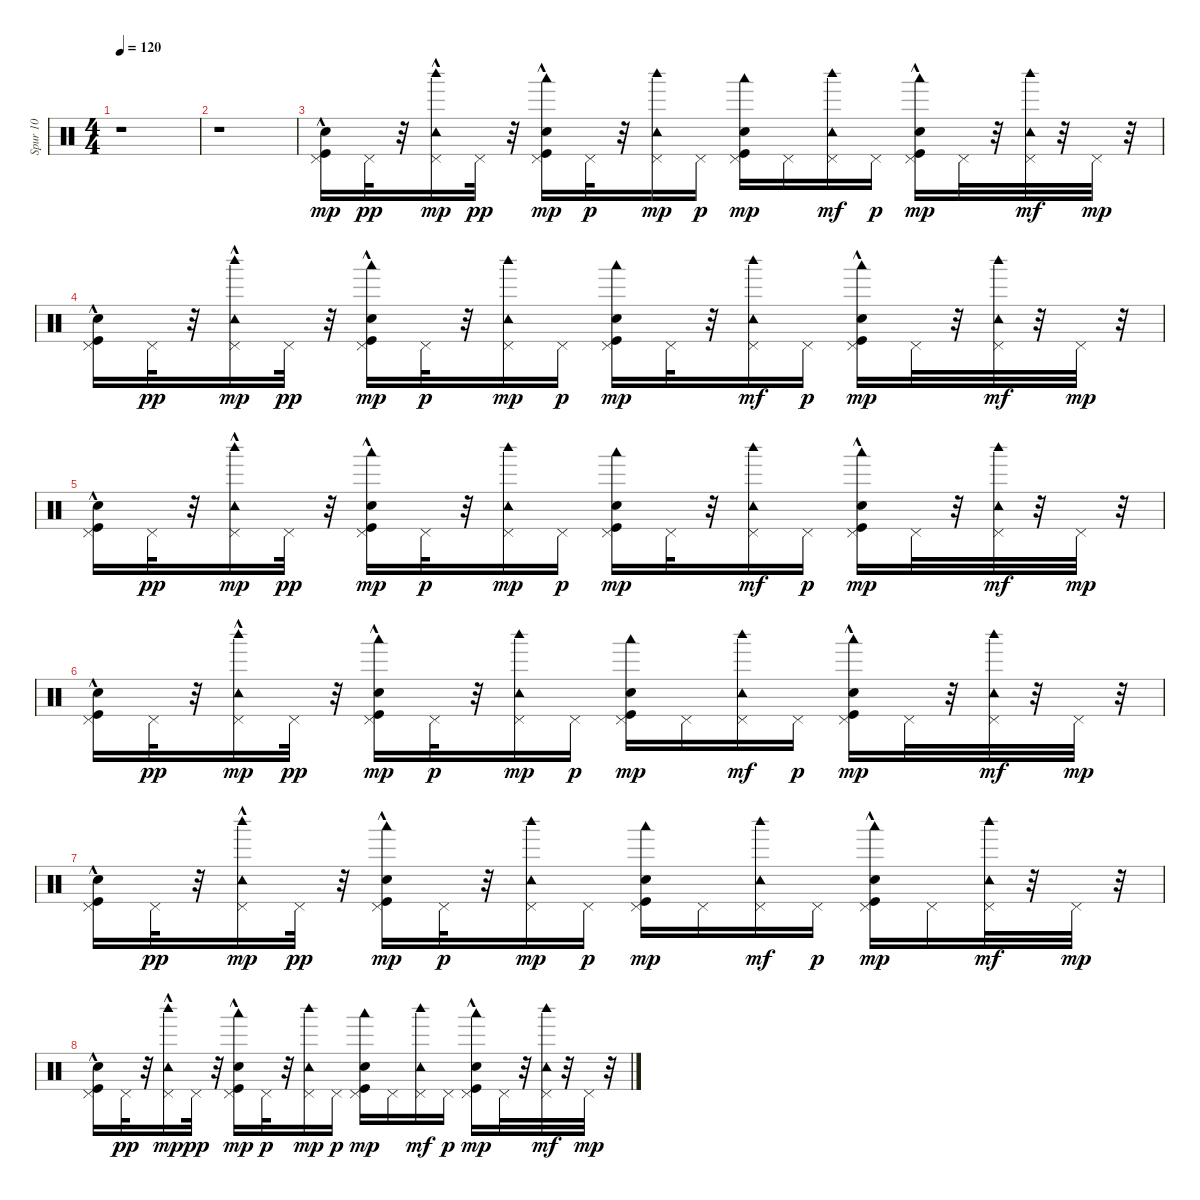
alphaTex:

\track ("Spur 10" "Spur 10") {instrument percussion}
\staff {score}
\articulation defaults
\ts (4 4)
\tempo 120
\clef neutral
\ks c
r.1{dy mp} |
r.1 |
("Pedal Hi-Hat (hit)" "Kick (hit)" "Hand Clap (hit)"{hac}).16 "Pedal Hi-Hat (hit)".32{dy pp} r.32 ("Pedal Hi-Hat (hit)" "Tambourine (hit)" "Woodblock high (hit)"{hac}).16{dy mp} "Pedal Hi-Hat (hit)".32{dy pp} r.32 ("Kick (hit)" "Pedal Hi-Hat (hit)" "Hand Clap (hit)" "Woodblock low (hit)"{hac}).16{dy mp} "Pedal Hi-Hat (hit)".32{dy p} r.32 ("Pedal Hi-Hat (hit)" "Tambourine (hit)" "Woodblock high (hit)").16{dy mp} "Pedal Hi-Hat (hit)".16{dy p} ("Kick (hit)" "Pedal Hi-Hat (hit)" "Hand Clap (hit)" "Woodblock low (hit)").16{dy mp} "Pedal Hi-Hat (hit)".16 ("Pedal Hi-Hat (hit)" "Tambourine (hit)" "Woodblock high (hit)").16{dy mf} "Pedal Hi-Hat (hit)".16{dy p} ("Kick (hit)"{hac} "Pedal Hi-Hat (hit)" "Hand Clap (hit)"{hac} "Woodblock low (hit)").16{dy mp} "Pedal Hi-Hat (hit)".32 r.32 ("Pedal Hi-Hat (hit)" "Tambourine (hit)" "Woodblock high (hit)").32{dy mf} r.32 "Pedal Hi-Hat (hit)".32{dy mp} r.32 |
("Pedal Hi-Hat (hit)" "Kick (hit)" "Hand Clap (hit)"{hac}).16 "Pedal Hi-Hat (hit)".32{dy pp} r.32 ("Pedal Hi-Hat (hit)" "Tambourine (hit)" "Woodblock high (hit)"{hac}).16{dy mp} "Pedal Hi-Hat (hit)".32{dy pp} r.32 ("Kick (hit)" "Pedal Hi-Hat (hit)" "Hand Clap (hit)" "Woodblock low (hit)"{hac}).16{dy mp} "Pedal Hi-Hat (hit)".32{dy p} r.32 ("Pedal Hi-Hat (hit)" "Tambourine (hit)" "Woodblock high (hit)").16{dy mp} "Pedal Hi-Hat (hit)".16{dy p} ("Kick (hit)" "Pedal Hi-Hat (hit)" "Hand Clap (hit)" "Woodblock low (hit)").16{dy mp} "Pedal Hi-Hat (hit)".32 r.32 ("Pedal Hi-Hat (hit)" "Tambourine (hit)" "Woodblock high (hit)").16{dy mf} "Pedal Hi-Hat (hit)".16{dy p} ("Kick (hit)"{hac} "Pedal Hi-Hat (hit)" "Hand Clap (hit)"{hac} "Woodblock low (hit)").16{dy mp} "Pedal Hi-Hat (hit)".32 r.32 ("Pedal Hi-Hat (hit)" "Tambourine (hit)" "Woodblock high (hit)").32{dy mf} r.32 "Pedal Hi-Hat (hit)".32{dy mp} r.32 |
("Pedal Hi-Hat (hit)" "Kick (hit)" "Hand Clap (hit)"{hac}).16 "Pedal Hi-Hat (hit)".32{dy pp} r.32 ("Pedal Hi-Hat (hit)" "Tambourine (hit)" "Woodblock high (hit)"{hac}).16{dy mp} "Pedal Hi-Hat (hit)".32{dy pp} r.32 ("Kick (hit)" "Pedal Hi-Hat (hit)" "Hand Clap (hit)"{hac} "Woodblock low (hit)"{hac}).16{dy mp} "Pedal Hi-Hat (hit)".32{dy p} r.32 ("Pedal Hi-Hat (hit)" "Tambourine (hit)" "Woodblock high (hit)").16{dy mp} "Pedal Hi-Hat (hit)".16{dy p} ("Kick (hit)" "Pedal Hi-Hat (hit)" "Hand Clap (hit)" "Woodblock low (hit)").16{dy mp} "Pedal Hi-Hat (hit)".32 r.32 ("Pedal Hi-Hat (hit)" "Tambourine (hit)" "Woodblock high (hit)").16{dy mf} "Pedal Hi-Hat (hit)".16{dy p} ("Kick (hit)"{hac} "Pedal Hi-Hat (hit)" "Hand Clap (hit)"{hac} "Woodblock low (hit)").16{dy mp} "Pedal Hi-Hat (hit)".32 r.32 ("Pedal Hi-Hat (hit)" "Tambourine (hit)" "Woodblock high (hit)").32{dy mf} r.32 "Pedal Hi-Hat (hit)".32{dy mp} r.32 |
("Pedal Hi-Hat (hit)" "Kick (hit)" "Hand Clap (hit)"{hac}).16 "Pedal Hi-Hat (hit)".32{dy pp} r.32 ("Pedal Hi-Hat (hit)" "Tambourine (hit)" "Woodblock high (hit)"{hac}).16{dy mp} "Pedal Hi-Hat (hit)".32{dy pp} r.32 ("Kick (hit)" "Pedal Hi-Hat (hit)" "Hand Clap (hit)" "Woodblock low (hit)"{hac}).16{dy mp} "Pedal Hi-Hat (hit)".32{dy p} r.32 ("Pedal Hi-Hat (hit)" "Tambourine (hit)" "Woodblock high (hit)").16{dy mp} "Pedal Hi-Hat (hit)".16{dy p} ("Kick (hit)" "Pedal Hi-Hat (hit)" "Hand Clap (hit)" "Woodblock low (hit)").16{dy mp} "Pedal Hi-Hat (hit)".16 ("Pedal Hi-Hat (hit)" "Tambourine (hit)" "Woodblock high (hit)").16{dy mf} "Pedal Hi-Hat (hit)".16{dy p} ("Kick (hit)"{hac} "Pedal Hi-Hat (hit)" "Hand Clap (hit)"{hac} "Woodblock low (hit)").16{dy mp} "Pedal Hi-Hat (hit)".32 r.32 ("Pedal Hi-Hat (hit)" "Tambourine (hit)" "Woodblock high (hit)").32{dy mf} r.32 "Pedal Hi-Hat (hit)".32{dy mp} r.32 |
("Pedal Hi-Hat (hit)" "Kick (hit)" "Hand Clap (hit)"{hac}).16 "Pedal Hi-Hat (hit)".32{dy pp} r.32 ("Pedal Hi-Hat (hit)" "Tambourine (hit)" "Woodblock high (hit)"{hac}).16{dy mp} "Pedal Hi-Hat (hit)".32{dy pp} r.32 ("Kick (hit)" "Pedal Hi-Hat (hit)" "Hand Clap (hit)" "Woodblock low (hit)"{hac}).16{dy mp} "Pedal Hi-Hat (hit)".32{dy p} r.32 ("Pedal Hi-Hat (hit)" "Tambourine (hit)" "Woodblock high (hit)").16{dy mp} "Pedal Hi-Hat (hit)".16{dy p} ("Kick (hit)" "Pedal Hi-Hat (hit)" "Hand Clap (hit)" "Woodblock low (hit)").16{dy mp} "Pedal Hi-Hat (hit)".16 ("Pedal Hi-Hat (hit)" "Tambourine (hit)" "Woodblock high (hit)").16{dy mf} "Pedal Hi-Hat (hit)".16{dy p} ("Kick (hit)"{hac} "Pedal Hi-Hat (hit)" "Hand Clap (hit)"{hac} "Woodblock low (hit)").16{dy mp} "Pedal Hi-Hat (hit)".16 ("Pedal Hi-Hat (hit)" "Tambourine (hit)" "Woodblock high (hit)").32{dy mf} r.32 "Pedal Hi-Hat (hit)".32{dy mp} r.32 |
("Pedal Hi-Hat (hit)" "Kick (hit)" "Hand Clap (hit)"{hac}).16 "Pedal Hi-Hat (hit)".32{dy pp} r.32 ("Pedal Hi-Hat (hit)" "Tambourine (hit)" "Woodblock high (hit)"{hac}).16{dy mp} "Pedal Hi-Hat (hit)".32{dy pp} r.32 ("Kick (hit)" "Pedal Hi-Hat (hit)" "Hand Clap (hit)" "Woodblock low (hit)"{hac}).16{dy mp} "Pedal Hi-Hat (hit)".32{dy p} r.32 ("Pedal Hi-Hat (hit)" "Tambourine (hit)" "Woodblock high (hit)").16{dy mp} "Pedal Hi-Hat (hit)".16{dy p} ("Kick (hit)" "Pedal Hi-Hat (hit)" "Hand Clap (hit)" "Woodblock low (hit)").16{dy mp} "Pedal Hi-Hat (hit)".16 ("Pedal Hi-Hat (hit)" "Tambourine (hit)" "Woodblock high (hit)").16{dy mf} "Pedal Hi-Hat (hit)".16{dy p} ("Kick (hit)"{hac} "Pedal Hi-Hat (hit)" "Hand Clap (hit)"{hac} "Woodblock low (hit)").16{dy mp} "Pedal Hi-Hat (hit)".32 r.32 ("Pedal Hi-Hat (hit)" "Tambourine (hit)" "Woodblock high (hit)").32{dy mf} r.32 "Pedal Hi-Hat (hit)".32{dy mp} r.32
